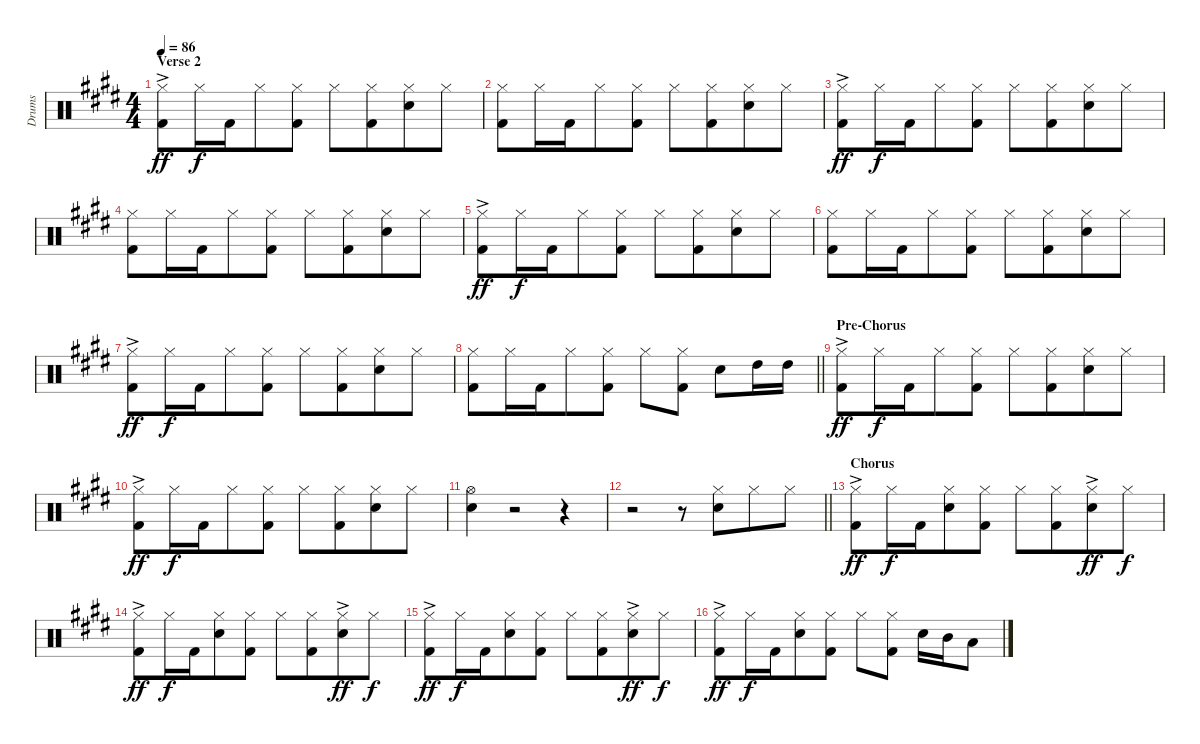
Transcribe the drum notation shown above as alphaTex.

\track ("Drums" "Drums") {instrument percussion}
\staff {score}
\articulation defaults
\ts (4 4)
\section ("" "Verse 2")
\tempo 86
\clef neutral
\ks e
("Hi-Hat (closed)" "Kick (hit) 2"{ac}).8{dy ff} "Hi-Hat (closed)".16{dy f} "Kick (hit) 2".16{beam merge} "Hi-Hat (closed)".8 ("Hi-Hat (closed)" "Kick (hit) 2").8 "Hi-Hat (closed)".8 ("Hi-Hat (closed)" "Kick (hit) 2").8{beam merge} ("Hi-Hat (closed)" "Electric Snare (hit)").8 "Hi-Hat (closed)".8 |
("Hi-Hat (closed)" "Kick (hit) 2").8 "Hi-Hat (closed)".16 "Kick (hit) 2".16{beam merge} "Hi-Hat (closed)".8 ("Hi-Hat (closed)" "Kick (hit) 2").8 "Hi-Hat (closed)".8 ("Hi-Hat (closed)" "Kick (hit) 2").8{beam merge} ("Hi-Hat (closed)" "Electric Snare (hit)").8 "Hi-Hat (closed)".8 |
("Hi-Hat (closed)" "Kick (hit) 2"{ac}).8{dy ff} "Hi-Hat (closed)".16{dy f} "Kick (hit) 2".16{beam merge} "Hi-Hat (closed)".8 ("Hi-Hat (closed)" "Kick (hit) 2").8 "Hi-Hat (closed)".8 ("Hi-Hat (closed)" "Kick (hit) 2").8{beam merge} ("Hi-Hat (closed)" "Electric Snare (hit)").8 "Hi-Hat (closed)".8 |
("Hi-Hat (closed)" "Kick (hit) 2").8 "Hi-Hat (closed)".16 "Kick (hit) 2".16{beam merge} "Hi-Hat (closed)".8 ("Hi-Hat (closed)" "Kick (hit) 2").8 "Hi-Hat (closed)".8 ("Hi-Hat (closed)" "Kick (hit) 2").8{beam merge} ("Hi-Hat (closed)" "Electric Snare (hit)").8 "Hi-Hat (closed)".8 |
("Hi-Hat (closed)" "Kick (hit) 2"{ac}).8{dy ff} "Hi-Hat (closed)".16{dy f} "Kick (hit) 2".16{beam merge} "Hi-Hat (closed)".8 ("Hi-Hat (closed)" "Kick (hit) 2").8 "Hi-Hat (closed)".8 ("Hi-Hat (closed)" "Kick (hit) 2").8{beam merge} ("Hi-Hat (closed)" "Electric Snare (hit)").8 "Hi-Hat (closed)".8 |
("Hi-Hat (closed)" "Kick (hit) 2").8 "Hi-Hat (closed)".16 "Kick (hit) 2".16{beam merge} "Hi-Hat (closed)".8 ("Hi-Hat (closed)" "Kick (hit) 2").8 "Hi-Hat (closed)".8 ("Hi-Hat (closed)" "Kick (hit) 2").8{beam merge} ("Hi-Hat (closed)" "Electric Snare (hit)").8 "Hi-Hat (closed)".8 |
("Hi-Hat (closed)" "Kick (hit) 2"{ac}).8{dy ff} "Hi-Hat (closed)".16{dy f} "Kick (hit) 2".16{beam merge} "Hi-Hat (closed)".8 ("Hi-Hat (closed)" "Kick (hit) 2").8 "Hi-Hat (closed)".8 ("Hi-Hat (closed)" "Kick (hit) 2").8{beam merge} ("Hi-Hat (closed)" "Electric Snare (hit)").8 "Hi-Hat (closed)".8 |
\barLineRight lightlight
("Hi-Hat (closed)" "Kick (hit) 2").8 "Hi-Hat (closed)".16 "Kick (hit) 2".16{beam merge} "Hi-Hat (closed)".8 ("Hi-Hat (closed)" "Kick (hit) 2").8 "Hi-Hat (closed)".8 ("Hi-Hat (closed)" "Kick (hit) 2").8 "Electric Snare (hit)".8 "High Tom (hit)".16 "High Tom (hit)".16 |
\section ("" "Pre-Chorus")
("Hi-Hat (closed)" "Kick (hit) 2"{ac}).8{dy ff} "Hi-Hat (closed)".16{dy f} "Kick (hit) 2".16{beam merge} "Hi-Hat (closed)".8 ("Hi-Hat (closed)" "Kick (hit) 2").8 "Hi-Hat (closed)".8 ("Hi-Hat (closed)" "Kick (hit) 2").8{beam merge} ("Hi-Hat (closed)" "Electric Snare (hit)").8 "Hi-Hat (closed)".8 |
("Hi-Hat (closed)" "Kick (hit) 2"{ac}).8{dy ff} "Hi-Hat (closed)".16{dy f} "Kick (hit) 2".16{beam merge} "Hi-Hat (closed)".8 ("Hi-Hat (closed)" "Kick (hit) 2").8 "Hi-Hat (closed)".8 ("Hi-Hat (closed)" "Kick (hit) 2").8{beam merge} ("Hi-Hat (closed)" "Electric Snare (hit)").8 "Hi-Hat (closed)".8 |
("Hi-Hat (open)" "Electric Snare (hit)").4 r.2 r.4 |
\barLineRight lightlight
r.2 r.8 ("Hi-Hat (closed)" "Electric Snare (hit)").8{beam merge} "Hi-Hat (closed)".8 "Hi-Hat (closed)".8 |
\section ("" "Chorus")
("Hi-Hat (closed)" "Kick (hit) 2"{ac}).8{dy ff} "Hi-Hat (closed)".16{dy f} "Kick (hit) 2".16{beam merge} ("Hi-Hat (closed)" "Electric Snare (hit)").8 ("Hi-Hat (closed)" "Kick (hit) 2").8 "Hi-Hat (closed)".8 ("Hi-Hat (closed)" "Kick (hit) 2").8{beam merge} ("Hi-Hat (closed)" "Electric Snare (hit)"{ac}).8{dy ff} "Hi-Hat (closed)".8{dy f} |
("Hi-Hat (closed)" "Kick (hit) 2"{ac}).8{dy ff} "Hi-Hat (closed)".16{dy f} "Kick (hit) 2".16{beam merge} ("Hi-Hat (closed)" "Electric Snare (hit)").8 ("Hi-Hat (closed)" "Kick (hit) 2").8 "Hi-Hat (closed)".8 ("Hi-Hat (closed)" "Kick (hit) 2").8{beam merge} ("Hi-Hat (closed)" "Electric Snare (hit)"{ac}).8{dy ff} "Hi-Hat (closed)".8{dy f} |
("Hi-Hat (closed)" "Kick (hit) 2"{ac}).8{dy ff} "Hi-Hat (closed)".16{dy f} "Kick (hit) 2".16{beam merge} ("Hi-Hat (closed)" "Electric Snare (hit)").8 ("Hi-Hat (closed)" "Kick (hit) 2").8 "Hi-Hat (closed)".8 ("Hi-Hat (closed)" "Kick (hit) 2").8{beam merge} ("Hi-Hat (closed)" "Electric Snare (hit)"{ac}).8{dy ff} "Hi-Hat (closed)".8{dy f} |
("Hi-Hat (closed)" "Kick (hit) 2"{ac}).8{dy ff} "Hi-Hat (closed)".16{dy f} "Kick (hit) 2".16{beam merge} ("Hi-Hat (closed)" "Electric Snare (hit)").8 ("Hi-Hat (closed)" "Kick (hit) 2").8 "Hi-Hat (closed)".8 ("Hi-Hat (closed)" "Kick (hit) 2").8 "Electric Snare (hit)".16 "Mid Tom (hit)".16 "Low Tom (hit)".8
